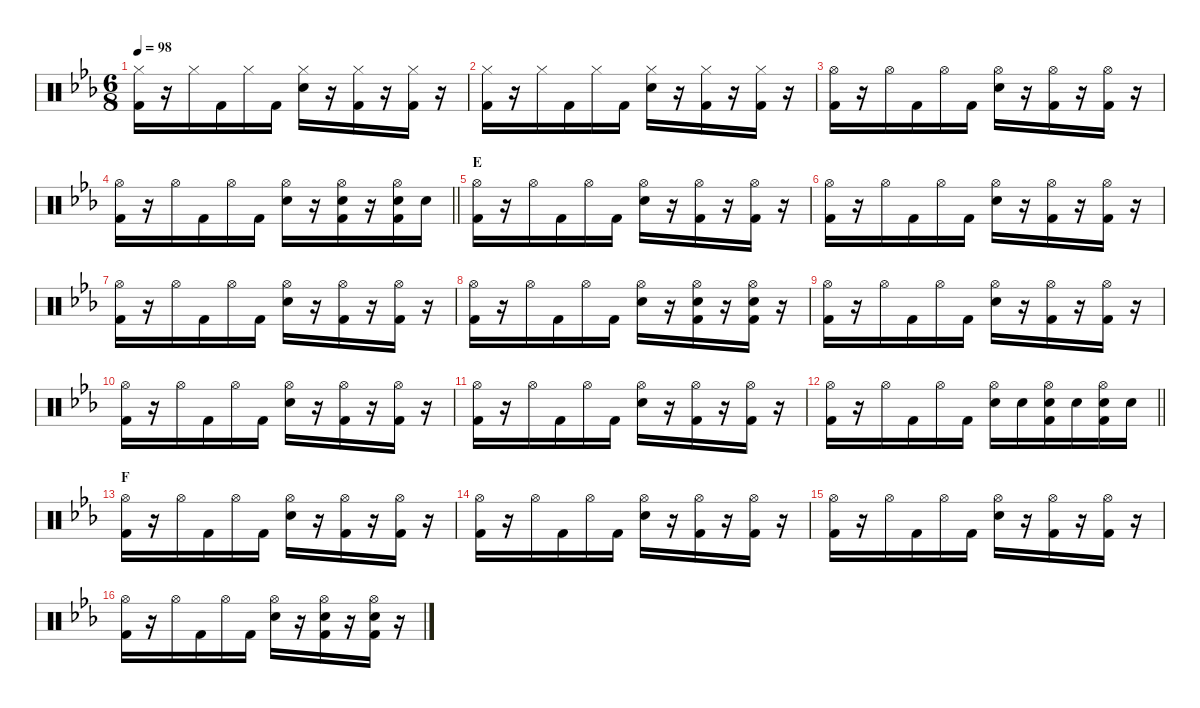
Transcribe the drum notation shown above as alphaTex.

\defaultSystemsLayout 4
\hideDynamics
\bracketExtendMode nobrackets
\singleTrackTrackNamePolicy hidden
\multiTrackTrackNamePolicy hidden
\firstSystemTrackNameMode fullname
\firstSystemTrackNameOrientation horizontal
\otherSystemsTrackNameOrientation horizontal
\track ("Gene Hogland" "drm.") {instrument percussion}
\staff {score}
\articulation defaults
\ts (6 8)
\tempo 98
\clef neutral
\ks eb
("Hi-Hat (closed)"{acc forcenatural} "Kick (hit) 2"{acc forcenatural}).16{dy f beam Down} r.16{beam Down} "Hi-Hat (closed)"{acc forcenatural}.16{beam Down} "Kick (hit) 2"{acc forcenatural}.16{beam Down} "Hi-Hat (closed)"{acc forcenatural}.16{beam Down} "Kick (hit) 2"{acc forcenatural}.16{beam Down} ("Hi-Hat (closed)"{acc forcenatural} "Snare (hit) 2"{acc forcenatural}).16{beam Down} r.16{beam Down} ("Hi-Hat (closed)"{acc forcenatural} "Kick (hit) 2"{acc forcenatural}).16{beam Down} r.16{beam Down} ("Hi-Hat (closed)"{acc forcenatural} "Kick (hit) 2"{acc forcenatural}).16{beam Down} r.16{beam Down} |
("Hi-Hat (closed)"{acc forcenatural} "Kick (hit) 2"{acc forcenatural}).16{beam Down} r.16{beam Down} "Hi-Hat (closed)"{acc forcenatural}.16{beam Down} "Kick (hit) 2"{acc forcenatural}.16{beam Down} "Hi-Hat (closed)"{acc forcenatural}.16{beam Down} "Kick (hit) 2"{acc forcenatural}.16{beam Down} ("Hi-Hat (closed)"{acc forcenatural} "Snare (hit) 2"{acc forcenatural}).16{beam Down} r.16{beam Down} ("Hi-Hat (closed)"{acc forcenatural} "Kick (hit) 2"{acc forcenatural}).16{beam Down} r.16{beam Down} ("Hi-Hat (closed)"{acc forcenatural} "Kick (hit) 2"{acc forcenatural}).16{beam Down} r.16{beam Down} |
("Hi-Hat (open)"{acc forcenatural} "Kick (hit) 2"{acc forcenatural}).16{beam Down} r.16{beam Down} "Hi-Hat (open)"{acc forcenatural}.16{beam Down} "Kick (hit) 2"{acc forcenatural}.16{beam Down} "Hi-Hat (open)"{acc forcenatural}.16{beam Down} "Kick (hit) 2"{acc forcenatural}.16{beam Down} ("Hi-Hat (open)"{acc forcenatural} "Snare (hit) 2"{acc forcenatural}).16{beam Down} r.16{beam Down} ("Hi-Hat (open)"{acc forcenatural} "Kick (hit) 2"{acc forcenatural}).16{beam Down} r.16{beam Down} ("Hi-Hat (open)"{acc forcenatural} "Kick (hit) 2"{acc forcenatural}).16{beam Down} r.16{beam Down} |
\barLineRight lightlight
("Hi-Hat (open)"{acc forcenatural} "Kick (hit) 2"{acc forcenatural}).16{beam Down} r.16{beam Down} "Hi-Hat (open)"{acc forcenatural}.16{beam Down} "Kick (hit) 2"{acc forcenatural}.16{beam Down} "Hi-Hat (open)"{acc forcenatural}.16{beam Down} "Kick (hit) 2"{acc forcenatural}.16{beam Down} ("Hi-Hat (open)"{acc forcenatural} "Snare (hit) 2"{acc forcenatural}).16{beam Down} r.16{beam Down} ("Hi-Hat (open)"{acc forcenatural} "Snare (hit) 2"{acc forcenatural} "Kick (hit) 2"{acc forcenatural}).16{beam Down} r.16{beam Down} ("Hi-Hat (open)"{acc forcenatural} "Snare (hit) 2"{acc forcenatural} "Kick (hit) 2"{acc forcenatural}).16{beam Down} "Snare (hit) 2"{acc forcenatural}.16{beam Down} |
\section ("" "E")
("Hi-Hat (open)"{acc forcenatural} "Kick (hit) 2"{acc forcenatural}).16{beam Down} r.16{beam Down} "Hi-Hat (open)"{acc forcenatural}.16{beam Down} "Kick (hit) 2"{acc forcenatural}.16{beam Down} "Hi-Hat (open)"{acc forcenatural}.16{beam Down} "Kick (hit) 2"{acc forcenatural}.16{beam Down} ("Hi-Hat (open)"{acc forcenatural} "Snare (hit) 2"{acc forcenatural}).16{beam Down} r.16{beam Down} ("Hi-Hat (open)"{acc forcenatural} "Kick (hit) 2"{acc forcenatural}).16{beam Down} r.16{beam Down} ("Hi-Hat (open)"{acc forcenatural} "Kick (hit) 2"{acc forcenatural}).16{beam Down} r.16{beam Down} |
("Hi-Hat (open)"{acc forcenatural} "Kick (hit) 2"{acc forcenatural}).16{beam Down} r.16{beam Down} "Hi-Hat (open)"{acc forcenatural}.16{beam Down} "Kick (hit) 2"{acc forcenatural}.16{beam Down} "Hi-Hat (open)"{acc forcenatural}.16{beam Down} "Kick (hit) 2"{acc forcenatural}.16{beam Down} ("Hi-Hat (open)"{acc forcenatural} "Snare (hit) 2"{acc forcenatural}).16{beam Down} r.16{beam Down} ("Hi-Hat (open)"{acc forcenatural} "Kick (hit) 2"{acc forcenatural}).16{beam Down} r.16{beam Down} ("Hi-Hat (open)"{acc forcenatural} "Kick (hit) 2"{acc forcenatural}).16{beam Down} r.16{beam Down} |
("Hi-Hat (open)"{acc forcenatural} "Kick (hit) 2"{acc forcenatural}).16{beam Down} r.16{beam Down} "Hi-Hat (open)"{acc forcenatural}.16{beam Down} "Kick (hit) 2"{acc forcenatural}.16{beam Down} "Hi-Hat (open)"{acc forcenatural}.16{beam Down} "Kick (hit) 2"{acc forcenatural}.16{beam Down} ("Hi-Hat (open)"{acc forcenatural} "Snare (hit) 2"{acc forcenatural}).16{beam Down} r.16{beam Down} ("Hi-Hat (open)"{acc forcenatural} "Kick (hit) 2"{acc forcenatural}).16{beam Down} r.16{beam Down} ("Hi-Hat (open)"{acc forcenatural} "Kick (hit) 2"{acc forcenatural}).16{beam Down} r.16{beam Down} |
("Hi-Hat (open)"{acc forcenatural} "Kick (hit) 2"{acc forcenatural}).16{beam Down} r.16{beam Down} "Hi-Hat (open)"{acc forcenatural}.16{beam Down} "Kick (hit) 2"{acc forcenatural}.16{beam Down} "Hi-Hat (open)"{acc forcenatural}.16{beam Down} "Kick (hit) 2"{acc forcenatural}.16{beam Down} ("Hi-Hat (open)"{acc forcenatural} "Snare (hit) 2"{acc forcenatural}).16{beam Down} r.16{beam Down} ("Hi-Hat (open)"{acc forcenatural} "Snare (hit) 2"{acc forcenatural} "Kick (hit) 2"{acc forcenatural}).16{beam Down} r.16{beam Down} ("Hi-Hat (open)"{acc forcenatural} "Snare (hit) 2"{acc forcenatural} "Kick (hit) 2"{acc forcenatural}).16{beam Down} r.16{beam Down} |
("Hi-Hat (open)"{acc forcenatural} "Kick (hit) 2"{acc forcenatural}).16{beam Down} r.16{beam Down} "Hi-Hat (open)"{acc forcenatural}.16{beam Down} "Kick (hit) 2"{acc forcenatural}.16{beam Down} "Hi-Hat (open)"{acc forcenatural}.16{beam Down} "Kick (hit) 2"{acc forcenatural}.16{beam Down} ("Hi-Hat (open)"{acc forcenatural} "Snare (hit) 2"{acc forcenatural}).16{beam Down} r.16{beam Down} ("Hi-Hat (open)"{acc forcenatural} "Kick (hit) 2"{acc forcenatural}).16{beam Down} r.16{beam Down} ("Hi-Hat (open)"{acc forcenatural} "Kick (hit) 2"{acc forcenatural}).16{beam Down} r.16{beam Down} |
("Hi-Hat (open)"{acc forcenatural} "Kick (hit) 2"{acc forcenatural}).16{beam Down} r.16{beam Down} "Hi-Hat (open)"{acc forcenatural}.16{beam Down} "Kick (hit) 2"{acc forcenatural}.16{beam Down} "Hi-Hat (open)"{acc forcenatural}.16{beam Down} "Kick (hit) 2"{acc forcenatural}.16{beam Down} ("Hi-Hat (open)"{acc forcenatural} "Snare (hit) 2"{acc forcenatural}).16{beam Down} r.16{beam Down} ("Hi-Hat (open)"{acc forcenatural} "Kick (hit) 2"{acc forcenatural}).16{beam Down} r.16{beam Down} ("Hi-Hat (open)"{acc forcenatural} "Kick (hit) 2"{acc forcenatural}).16{beam Down} r.16{beam Down} |
("Hi-Hat (open)"{acc forcenatural} "Kick (hit) 2"{acc forcenatural}).16{beam Down} r.16{beam Down} "Hi-Hat (open)"{acc forcenatural}.16{beam Down} "Kick (hit) 2"{acc forcenatural}.16{beam Down} "Hi-Hat (open)"{acc forcenatural}.16{beam Down} "Kick (hit) 2"{acc forcenatural}.16{beam Down} ("Hi-Hat (open)"{acc forcenatural} "Snare (hit) 2"{acc forcenatural}).16{beam Down} r.16{beam Down} ("Hi-Hat (open)"{acc forcenatural} "Kick (hit) 2"{acc forcenatural}).16{beam Down} r.16{beam Down} ("Hi-Hat (open)"{acc forcenatural} "Kick (hit) 2"{acc forcenatural}).16{beam Down} r.16{beam Down} |
\barLineRight lightlight
("Hi-Hat (open)"{acc forcenatural} "Kick (hit) 2"{acc forcenatural}).16{beam Down} r.16{beam Down} "Hi-Hat (open)"{acc forcenatural}.16{beam Down} "Kick (hit) 2"{acc forcenatural}.16{beam Down} "Hi-Hat (open)"{acc forcenatural}.16{beam Down} "Kick (hit) 2"{acc forcenatural}.16{beam Down} ("Hi-Hat (open)"{acc forcenatural} "Snare (hit) 2"{acc forcenatural}).16{beam Down} "Snare (hit) 2"{acc forcenatural}.16{beam Down} ("Hi-Hat (open)"{acc forcenatural} "Snare (hit) 2"{acc forcenatural} "Kick (hit) 2"{acc forcenatural}).16{beam Down} "Snare (hit) 2"{acc forcenatural}.16{beam Down} ("Hi-Hat (open)"{acc forcenatural} "Snare (hit) 2"{acc forcenatural} "Kick (hit) 2"{acc forcenatural}).16{beam Down} "Snare (hit) 2"{acc forcenatural}.16{beam Down} |
\section ("" "F")
("Hi-Hat (open)"{acc forcenatural} "Kick (hit) 2"{acc forcenatural}).16{beam Down} r.16{beam Down} "Hi-Hat (open)"{acc forcenatural}.16{beam Down} "Kick (hit) 2"{acc forcenatural}.16{beam Down} "Hi-Hat (open)"{acc forcenatural}.16{beam Down} "Kick (hit) 2"{acc forcenatural}.16{beam Down} ("Hi-Hat (open)"{acc forcenatural} "Snare (hit) 2"{acc forcenatural}).16{beam Down} r.16{beam Down} ("Hi-Hat (open)"{acc forcenatural} "Kick (hit) 2"{acc forcenatural}).16{beam Down} r.16{beam Down} ("Hi-Hat (open)"{acc forcenatural} "Kick (hit) 2"{acc forcenatural}).16{beam Down} r.16{beam Down} |
("Hi-Hat (open)"{acc forcenatural} "Kick (hit) 2"{acc forcenatural}).16{beam Down} r.16{beam Down} "Hi-Hat (open)"{acc forcenatural}.16{beam Down} "Kick (hit) 2"{acc forcenatural}.16{beam Down} "Hi-Hat (open)"{acc forcenatural}.16{beam Down} "Kick (hit) 2"{acc forcenatural}.16{beam Down} ("Hi-Hat (open)"{acc forcenatural} "Snare (hit) 2"{acc forcenatural}).16{beam Down} r.16{beam Down} ("Hi-Hat (open)"{acc forcenatural} "Kick (hit) 2"{acc forcenatural}).16{beam Down} r.16{beam Down} ("Hi-Hat (open)"{acc forcenatural} "Kick (hit) 2"{acc forcenatural}).16{beam Down} r.16{beam Down} |
("Hi-Hat (open)"{acc forcenatural} "Kick (hit) 2"{acc forcenatural}).16{beam Down} r.16{beam Down} "Hi-Hat (open)"{acc forcenatural}.16{beam Down} "Kick (hit) 2"{acc forcenatural}.16{beam Down} "Hi-Hat (open)"{acc forcenatural}.16{beam Down} "Kick (hit) 2"{acc forcenatural}.16{beam Down} ("Hi-Hat (open)"{acc forcenatural} "Snare (hit) 2"{acc forcenatural}).16{beam Down} r.16{beam Down} ("Hi-Hat (open)"{acc forcenatural} "Kick (hit) 2"{acc forcenatural}).16{beam Down} r.16{beam Down} ("Hi-Hat (open)"{acc forcenatural} "Kick (hit) 2"{acc forcenatural}).16{beam Down} r.16{beam Down} |
("Hi-Hat (open)"{acc forcenatural} "Kick (hit) 2"{acc forcenatural}).16{beam Down} r.16{beam Down} "Hi-Hat (open)"{acc forcenatural}.16{beam Down} "Kick (hit) 2"{acc forcenatural}.16{beam Down} "Hi-Hat (open)"{acc forcenatural}.16{beam Down} "Kick (hit) 2"{acc forcenatural}.16{beam Down} ("Hi-Hat (open)"{acc forcenatural} "Snare (hit) 2"{acc forcenatural}).16{beam Down} r.16{beam Down} ("Hi-Hat (open)"{acc forcenatural} "Snare (hit) 2"{acc forcenatural} "Kick (hit) 2"{acc forcenatural}).16{beam Down} r.16{beam Down} ("Hi-Hat (open)"{acc forcenatural} "Snare (hit) 2"{acc forcenatural} "Kick (hit) 2"{acc forcenatural}).16{beam Down} r.16{beam Down}
